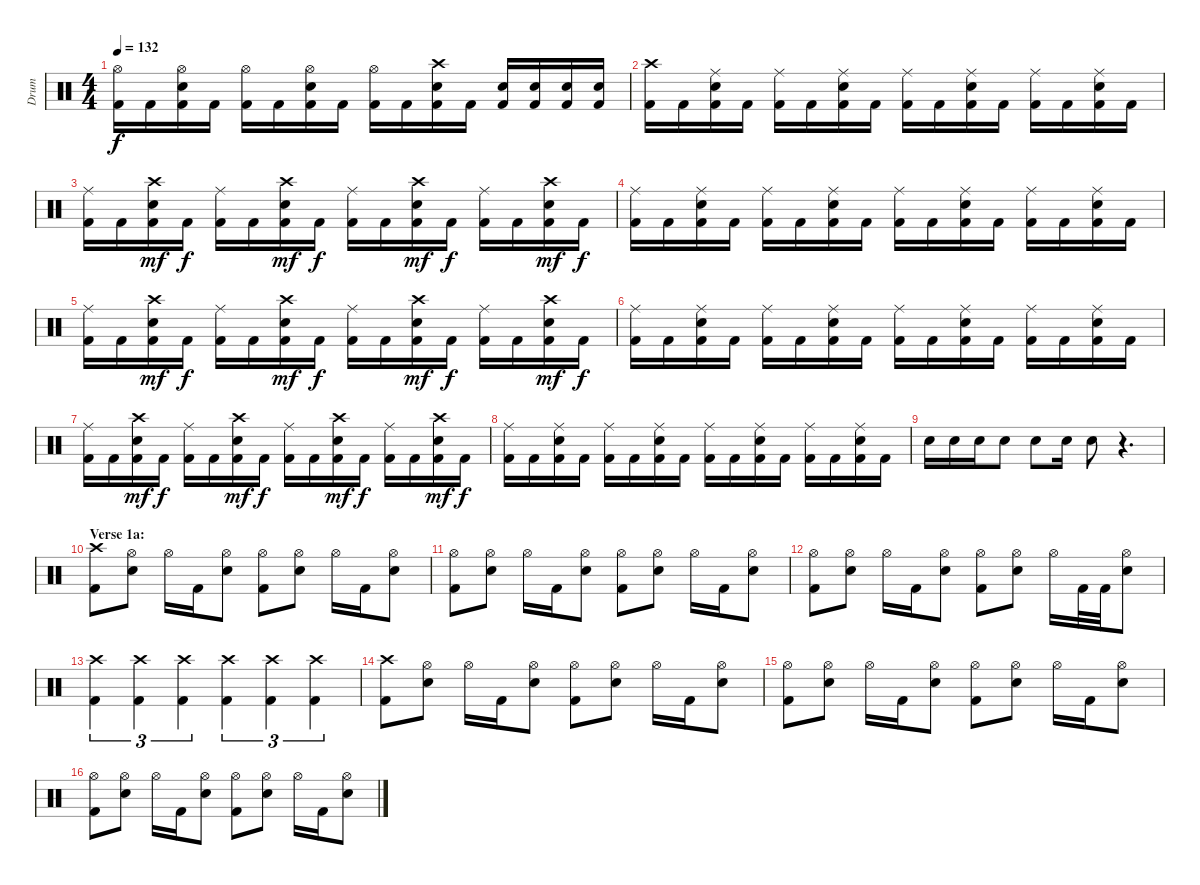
\track ("Drum" "Drum") {instrument percussion}
\staff {score}
\articulation defaults
\ts (4 4)
\tempo 132
\clef neutral
\ks c
("Kick (hit) 2" "Hi-Hat (open)").16{dy f} "Kick (hit) 2".16 ("Kick (hit) 2" "Snare (hit) 2" "Hi-Hat (open)").16 "Kick (hit) 2".16 ("Kick (hit) 2" "Hi-Hat (open)").16 "Kick (hit) 2".16 ("Kick (hit) 2" "Snare (hit) 2" "Hi-Hat (open)").16 "Kick (hit) 2".16 ("Kick (hit) 2" "Hi-Hat (open)").16 "Kick (hit) 2".16 ("Kick (hit) 2" "Snare (hit) 2" "Crash high (hit)").16 "Kick (hit) 2".16 ("Kick (hit) 2" "Snare (hit) 2").16 ("Kick (hit) 2" "Snare (hit) 2").16 ("Kick (hit) 2" "Snare (hit) 2").16 ("Kick (hit) 2" "Snare (hit) 2").16 |
("Kick (hit) 2" "Crash high (hit)").16 "Kick (hit) 2".16 ("Kick (hit) 2" "Snare (hit) 2" "Ride (middle)").16 "Kick (hit) 2".16 ("Kick (hit) 2" "Ride (middle)").16 "Kick (hit) 2".16 ("Kick (hit) 2" "Snare (hit) 2" "Ride (middle)").16 "Kick (hit) 2".16 ("Kick (hit) 2" "Ride (middle)").16 "Kick (hit) 2".16 ("Kick (hit) 2" "Snare (hit) 2" "Ride (middle)").16 "Kick (hit) 2".16 ("Kick (hit) 2" "Ride (middle)").16 "Kick (hit) 2".16 ("Kick (hit) 2" "Snare (hit) 2" "Ride (middle)").16 "Kick (hit) 2".16 |
("Kick (hit) 2" "Ride (middle)").16 "Kick (hit) 2".16 ("Kick (hit) 2" "Snare (hit) 2" "Crash high (hit)").16{dy mf} "Kick (hit) 2".16{dy f} ("Kick (hit) 2" "Ride (middle)").16 "Kick (hit) 2".16 ("Kick (hit) 2" "Snare (hit) 2" "Crash high (hit)").16{dy mf} "Kick (hit) 2".16{dy f} ("Kick (hit) 2" "Ride (middle)").16 "Kick (hit) 2".16 ("Kick (hit) 2" "Snare (hit) 2" "Crash high (hit)").16{dy mf} "Kick (hit) 2".16{dy f} ("Kick (hit) 2" "Ride (middle)").16 "Kick (hit) 2".16 ("Kick (hit) 2" "Snare (hit) 2" "Crash high (hit)").16{dy mf} "Kick (hit) 2".16{dy f} |
("Kick (hit) 2" "Ride (middle)").16 "Kick (hit) 2".16 ("Kick (hit) 2" "Snare (hit) 2" "Ride (middle)").16 "Kick (hit) 2".16 ("Kick (hit) 2" "Ride (middle)").16 "Kick (hit) 2".16 ("Kick (hit) 2" "Snare (hit) 2" "Ride (middle)").16 "Kick (hit) 2".16 ("Kick (hit) 2" "Ride (middle)").16 "Kick (hit) 2".16 ("Kick (hit) 2" "Snare (hit) 2" "Ride (middle)").16 "Kick (hit) 2".16 ("Kick (hit) 2" "Ride (middle)").16 "Kick (hit) 2".16 ("Kick (hit) 2" "Snare (hit) 2" "Ride (middle)").16 "Kick (hit) 2".16 |
("Kick (hit) 2" "Ride (middle)").16 "Kick (hit) 2".16 ("Kick (hit) 2" "Snare (hit) 2" "Crash high (hit)").16{dy mf} "Kick (hit) 2".16{dy f} ("Kick (hit) 2" "Ride (middle)").16 "Kick (hit) 2".16 ("Kick (hit) 2" "Snare (hit) 2" "Crash high (hit)").16{dy mf} "Kick (hit) 2".16{dy f} ("Kick (hit) 2" "Ride (middle)").16 "Kick (hit) 2".16 ("Kick (hit) 2" "Snare (hit) 2" "Crash high (hit)").16{dy mf} "Kick (hit) 2".16{dy f} ("Kick (hit) 2" "Ride (middle)").16 "Kick (hit) 2".16 ("Kick (hit) 2" "Snare (hit) 2" "Crash high (hit)").16{dy mf} "Kick (hit) 2".16{dy f} |
("Kick (hit) 2" "Ride (middle)").16 "Kick (hit) 2".16 ("Kick (hit) 2" "Snare (hit) 2" "Ride (middle)").16 "Kick (hit) 2".16 ("Kick (hit) 2" "Ride (middle)").16 "Kick (hit) 2".16 ("Kick (hit) 2" "Snare (hit) 2" "Ride (middle)").16 "Kick (hit) 2".16 ("Kick (hit) 2" "Ride (middle)").16 "Kick (hit) 2".16 ("Kick (hit) 2" "Snare (hit) 2" "Ride (middle)").16 "Kick (hit) 2".16 ("Kick (hit) 2" "Ride (middle)").16 "Kick (hit) 2".16 ("Kick (hit) 2" "Snare (hit) 2" "Ride (middle)").16 "Kick (hit) 2".16 |
("Kick (hit) 2" "Ride (middle)").16 "Kick (hit) 2".16 ("Kick (hit) 2" "Snare (hit) 2" "Crash high (hit)").16{dy mf} "Kick (hit) 2".16{dy f} ("Kick (hit) 2" "Ride (middle)").16 "Kick (hit) 2".16 ("Kick (hit) 2" "Snare (hit) 2" "Crash high (hit)").16{dy mf} "Kick (hit) 2".16{dy f} ("Kick (hit) 2" "Ride (middle)").16 "Kick (hit) 2".16 ("Kick (hit) 2" "Snare (hit) 2" "Crash high (hit)").16{dy mf} "Kick (hit) 2".16{dy f} ("Kick (hit) 2" "Ride (middle)").16 "Kick (hit) 2".16 ("Kick (hit) 2" "Snare (hit) 2" "Crash high (hit)").16{dy mf} "Kick (hit) 2".16{dy f} |
("Kick (hit) 2" "Ride (middle)").16 "Kick (hit) 2".16 ("Kick (hit) 2" "Snare (hit) 2" "Ride (middle)").16 "Kick (hit) 2".16 ("Kick (hit) 2" "Ride (middle)").16 "Kick (hit) 2".16 ("Kick (hit) 2" "Snare (hit) 2" "Ride (middle)").16 "Kick (hit) 2".16 ("Kick (hit) 2" "Ride (middle)").16 "Kick (hit) 2".16 ("Kick (hit) 2" "Snare (hit) 2" "Ride (middle)").16 "Kick (hit) 2".16 ("Kick (hit) 2" "Ride (middle)").16 "Kick (hit) 2".16 ("Kick (hit) 2" "Snare (hit) 2" "Ride (middle)").16 "Kick (hit) 2".16 |
"Snare (hit) 2".16 "Snare (hit) 2".16 "Snare (hit) 2".16 "Snare (hit) 2".8 "Snare (hit) 2".8 "Snare (hit) 2".16 "Snare (hit) 2".8 r.4{d} |
\section ("" "Verse 1a:")
("Kick (hit) 2" "Crash high (hit)").8 ("Snare (hit) 2" "Hi-Hat (open)").8 "Hi-Hat (open)".16 "Kick (hit) 2".16 ("Snare (hit) 2" "Hi-Hat (open)").8 ("Kick (hit) 2" "Hi-Hat (open)").8 ("Snare (hit) 2" "Hi-Hat (open)").8 "Hi-Hat (open)".16 "Kick (hit) 2".16 ("Snare (hit) 2" "Hi-Hat (open)").8 |
("Kick (hit) 2" "Hi-Hat (open)").8 ("Snare (hit) 2" "Hi-Hat (open)").8 "Hi-Hat (open)".16 "Kick (hit) 2".16 ("Snare (hit) 2" "Hi-Hat (open)").8 ("Kick (hit) 2" "Hi-Hat (open)").8 ("Snare (hit) 2" "Hi-Hat (open)").8 "Hi-Hat (open)".16 "Kick (hit) 2".16 ("Snare (hit) 2" "Hi-Hat (open)").8 |
("Kick (hit) 2" "Hi-Hat (open)").8 ("Snare (hit) 2" "Hi-Hat (open)").8 "Hi-Hat (open)".16 "Kick (hit) 2".16 ("Snare (hit) 2" "Hi-Hat (open)").8 ("Kick (hit) 2" "Hi-Hat (open)").8 ("Snare (hit) 2" "Hi-Hat (open)").8 "Hi-Hat (open)".16 "Kick (hit) 2".32 "Kick (hit) 2".32 ("Snare (hit) 2" "Hi-Hat (open)").8 |
("Kick (hit) 2" "Crash high (hit)").4{tu (3 2)} ("Kick (hit) 2" "Crash high (hit)").4{tu (3 2)} ("Kick (hit) 2" "Crash high (hit)").4{tu (3 2)} ("Kick (hit) 2" "Crash high (hit)").4{tu (3 2)} ("Kick (hit) 2" "Crash high (hit)").4{tu (3 2)} ("Kick (hit) 2" "Crash high (hit)").4{tu (3 2)} |
("Kick (hit) 2" "Crash high (hit)").8 ("Snare (hit) 2" "Hi-Hat (open)").8 "Hi-Hat (open)".16 "Kick (hit) 2".16 ("Snare (hit) 2" "Hi-Hat (open)").8 ("Kick (hit) 2" "Hi-Hat (open)").8 ("Snare (hit) 2" "Hi-Hat (open)").8 "Hi-Hat (open)".16 "Kick (hit) 2".16 ("Snare (hit) 2" "Hi-Hat (open)").8 |
("Kick (hit) 2" "Hi-Hat (open)").8 ("Snare (hit) 2" "Hi-Hat (open)").8 "Hi-Hat (open)".16 "Kick (hit) 2".16 ("Snare (hit) 2" "Hi-Hat (open)").8 ("Kick (hit) 2" "Hi-Hat (open)").8 ("Snare (hit) 2" "Hi-Hat (open)").8 "Hi-Hat (open)".16 "Kick (hit) 2".16 ("Snare (hit) 2" "Hi-Hat (open)").8 |
("Kick (hit) 2" "Hi-Hat (open)").8 ("Snare (hit) 2" "Hi-Hat (open)").8 "Hi-Hat (open)".16 "Kick (hit) 2".16 ("Snare (hit) 2" "Hi-Hat (open)").8 ("Kick (hit) 2" "Hi-Hat (open)").8 ("Snare (hit) 2" "Hi-Hat (open)").8 "Hi-Hat (open)".16 "Kick (hit) 2".16 ("Snare (hit) 2" "Hi-Hat (open)").8
